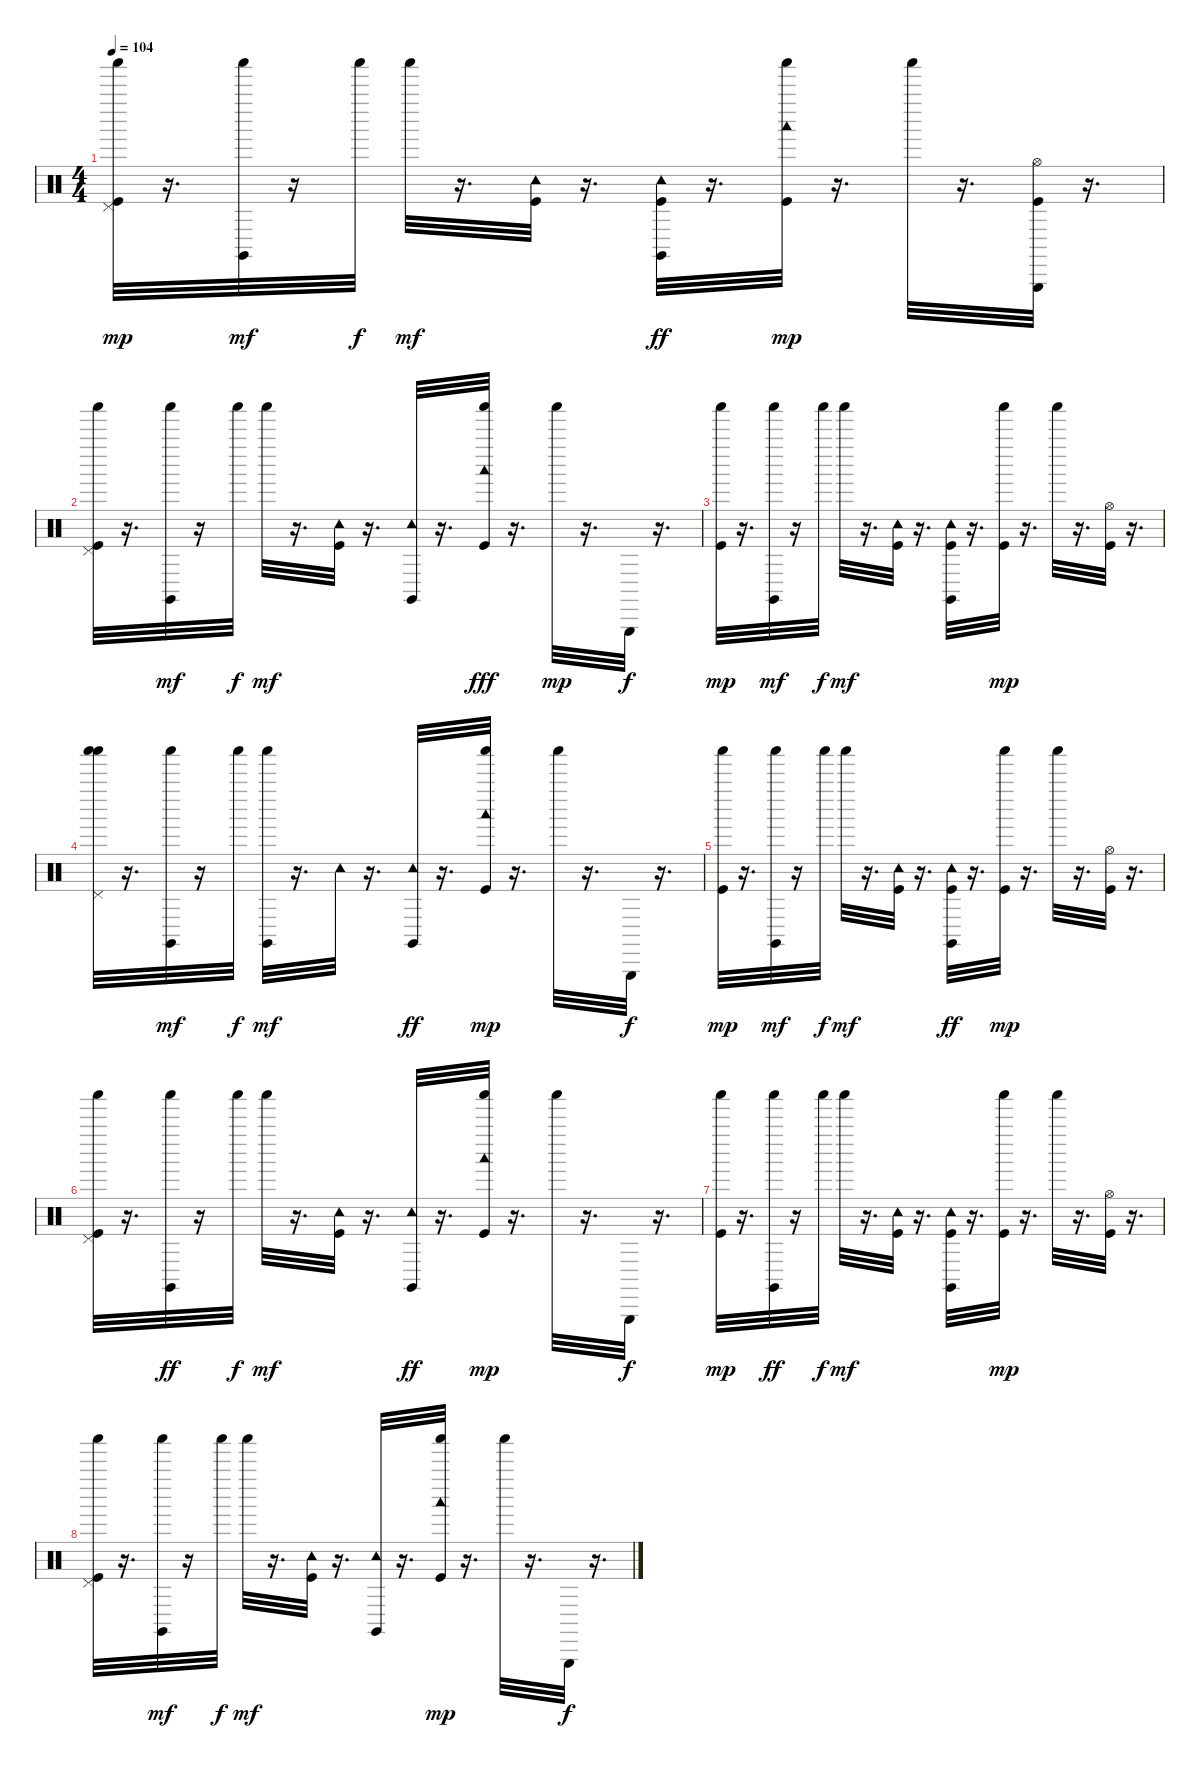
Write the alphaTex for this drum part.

\track "" {instrument percussion}
\staff {score}
\articulation defaults
\ts (4 4)
\tempo 104
\clef neutral
\ks c
("Pedal Hi-Hat (hit)" "Kick (hit)" "Shaker (hit)").32{dy mp} r.16{d} ("Claves (hit)" "Shaker (hit)").32{dy mf} r.16 "Shaker (hit)".32{dy f} "Shaker (hit)".32{dy mf} r.16{d} ("Kick (hit)" "Tambourine (hit)").32 r.16{d} ("Kick (hit)" "Tambourine (hit)" "Claves (hit)").32{dy ff} r.16{d} ("Kick (hit)" "Woodblock low (hit)" "Shaker (hit)").32{dy mp} r.16{d} "Shaker (hit)".32 r.16{d} ("Triangle (hit)" "Hi-Hat (open)" "Kick (hit)").32 r.16{d} |
("Pedal Hi-Hat (hit)" "Kick (hit)" "Shaker (hit)").32 r.16{d} ("Claves (hit)" "Shaker (hit)").32{dy mf} r.16 "Shaker (hit)".32{dy f} "Shaker (hit)".32{dy mf} r.16{d} ("Kick (hit)" "Tambourine (hit)").32 r.16{d} ("Claves (hit)" "Tambourine (hit)").32 r.16{d} ("Kick (hit)" "Shaker (hit)" "Woodblock low (hit)").32{dy fff} r.16{d} "Shaker (hit)".32{dy mp} r.16{d} "Triangle (hit)".32{dy f} r.16{d} |
("Shaker (hit)" "Kick (hit)").32{dy mp} r.16{d} ("Claves (hit)" "Shaker (hit)").32{dy mf} r.16 "Shaker (hit)".32{dy f} "Shaker (hit)".32{dy mf} r.16{d} ("Kick (hit)" "Tambourine (hit)").32 r.16{d} ("Claves (hit)" "Tambourine (hit)" "Kick (hit)").32 r.16{d} ("Shaker (hit)" "Kick (hit)").32{dy mp} r.16{d} "Shaker (hit)".32 r.16{d} ("Hi-Hat (open)" "Kick (hit)").32 r.16{d} |
("Shaker (hit)" "Pedal Hi-Hat (hit)" "Shaker (hit)").32 r.16{d} ("Claves (hit)" "Shaker (hit)").32{dy mf} r.16 "Shaker (hit)".32{dy f} ("Claves (hit)" "Shaker (hit)").32{dy mf} r.16{d} "Tambourine (hit)".32 r.16{d} ("Tambourine (hit)" "Claves (hit)").32{dy ff} r.16{d} ("Woodblock low (hit)" "Shaker (hit)" "Kick (hit)").32{dy mp} r.16{d} "Shaker (hit)".32 r.16{d} "Triangle (hit)".32{dy f} r.16{d} |
("Shaker (hit)" "Kick (hit)").32{dy mp} r.16{d} ("Claves (hit)" "Shaker (hit)").32{dy mf} r.16 "Shaker (hit)".32{dy f} "Shaker (hit)".32{dy mf} r.16{d} ("Tambourine (hit)" "Kick (hit)").32 r.16{d} ("Tambourine (hit)" "Claves (hit)" "Kick (hit)").32{dy ff} r.16{d} ("Kick (hit)" "Shaker (hit)").32{dy mp} r.16{d} "Shaker (hit)".32 r.16{d} ("Kick (hit)" "Hi-Hat (open)").32 r.16{d} |
("Kick (hit)" "Pedal Hi-Hat (hit)" "Shaker (hit)").32 r.16{d} ("Shaker (hit)" "Claves (hit)").32{dy ff} r.16 "Shaker (hit)".32{dy f} "Shaker (hit)".32{dy mf} r.16{d} ("Tambourine (hit)" "Kick (hit)").32 r.16{d} ("Tambourine (hit)" "Claves (hit)").32{dy ff} r.16{d} ("Kick (hit)" "Woodblock low (hit)" "Shaker (hit)").32{dy mp} r.16{d} "Shaker (hit)".32 r.16{d} "Triangle (hit)".32{dy f} r.16{d} |
("Shaker (hit)" "Kick (hit)").32{dy mp} r.16{d} ("Shaker (hit)" "Claves (hit)").32{dy ff} r.16 "Shaker (hit)".32{dy f} "Shaker (hit)".32{dy mf} r.16{d} ("Kick (hit)" "Tambourine (hit)").32 r.16{d} ("Kick (hit)" "Claves (hit)" "Tambourine (hit)").32 r.16{d} ("Kick (hit)" "Shaker (hit)").32{dy mp} r.16{d} "Shaker (hit)".32 r.16{d} ("Hi-Hat (open)" "Kick (hit)").32 r.16{d} |
("Pedal Hi-Hat (hit)" "Kick (hit)" "Shaker (hit)").32 r.16{d} ("Claves (hit)" "Shaker (hit)").32{dy mf} r.16 "Shaker (hit)".32{dy f} "Shaker (hit)".32{dy mf} r.16{d} ("Kick (hit)" "Tambourine (hit)").32 r.16{d} ("Claves (hit)" "Tambourine (hit)").32 r.16{d} ("Kick (hit)" "Woodblock low (hit)" "Shaker (hit)").32{dy mp} r.16{d} "Shaker (hit)".32 r.16{d} "Triangle (hit)".32{dy f} r.16{d}
